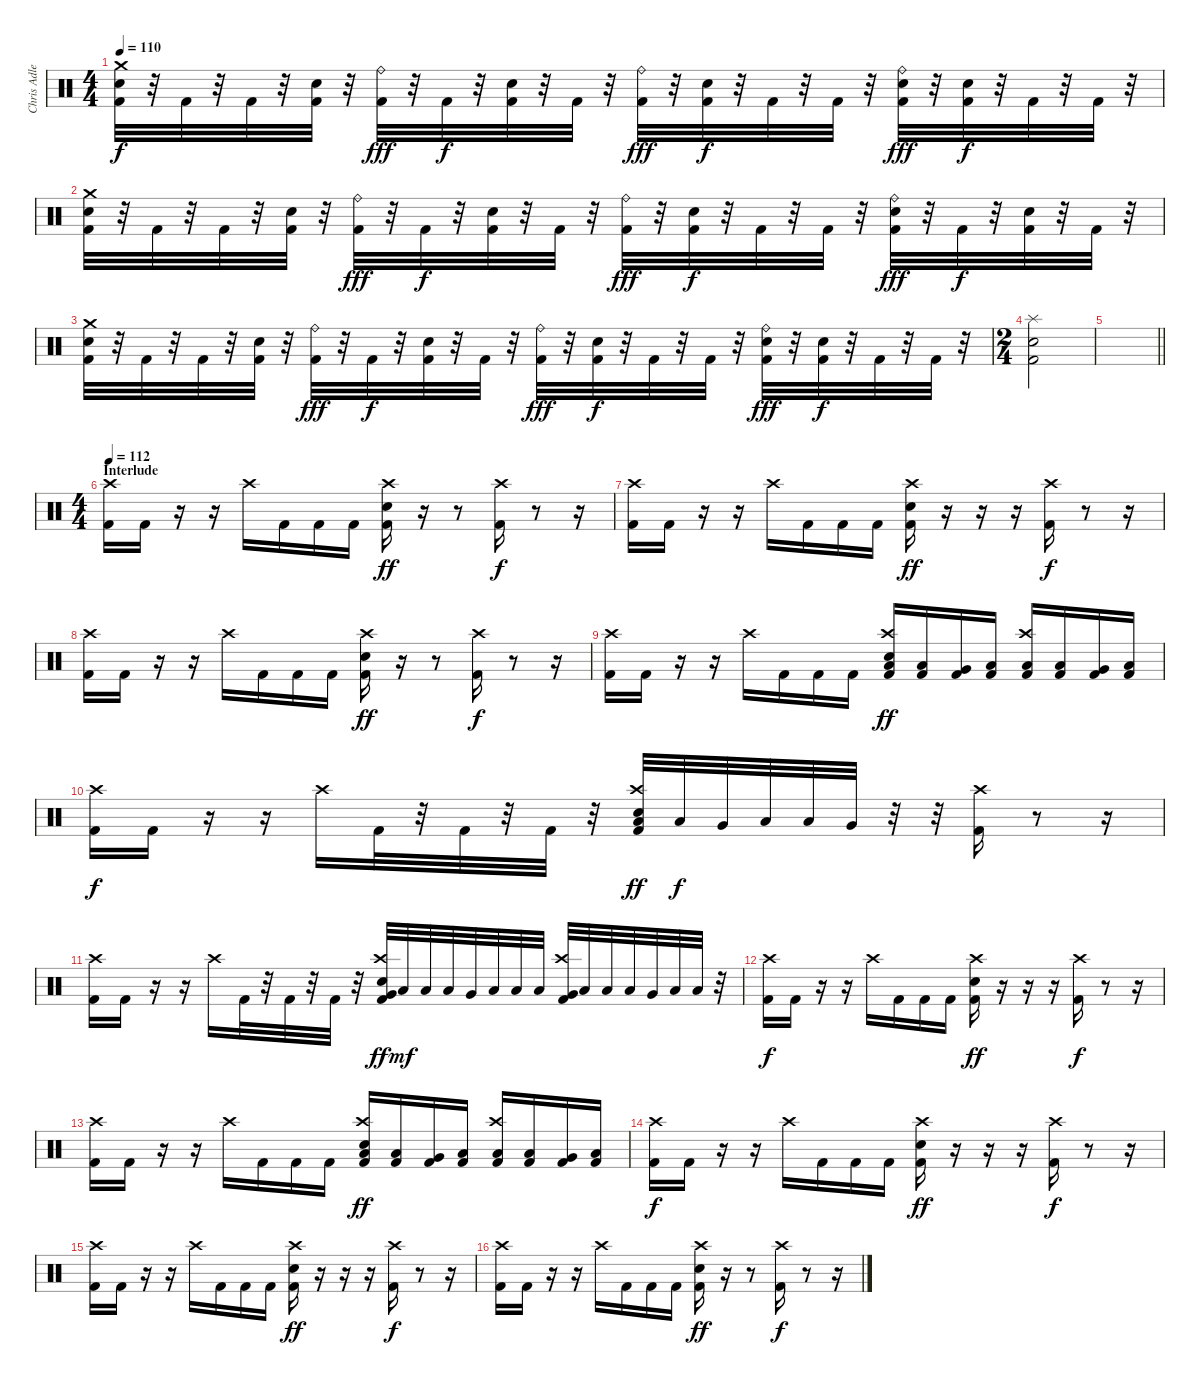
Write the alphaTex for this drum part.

\track ("Chris Adler" "Chris Adle") {instrument percussion}
\staff {score}
\articulation defaults
\ts (4 4)
\tempo 110
\clef neutral
\ks c
("Kick (hit) 2" "Electric Snare (hit)" "Crash medium (hit)").32{dy f} r.32 "Kick (hit) 2".32 r.32 "Kick (hit) 2".32 r.32 ("Kick (hit) 2" "Electric Snare (hit)").32 r.32 ("Kick (hit) 2" "Ride (bell)").32{dy fff} r.32 "Kick (hit) 2".32{dy f} r.32 ("Kick (hit) 2" "Electric Snare (hit)").32 r.32 "Kick (hit) 2".32 r.32 ("Kick (hit) 2" "Ride (bell)").32{dy fff} r.32 ("Kick (hit) 2" "Electric Snare (hit)").32{dy f} r.32 "Kick (hit) 2".32 r.32 "Kick (hit) 2".32 r.32 ("Kick (hit) 2" "Electric Snare (hit)" "Ride (bell)").32{dy fff} r.32 ("Kick (hit) 2" "Electric Snare (hit)").32{dy f} r.32 "Kick (hit) 2".32 r.32 "Kick (hit) 2".32 r.32 |
("Kick (hit) 2" "Electric Snare (hit)" "Crash medium (hit)").32 r.32 "Kick (hit) 2".32 r.32 "Kick (hit) 2".32 r.32 ("Kick (hit) 2" "Electric Snare (hit)").32 r.32 ("Kick (hit) 2" "Ride (bell)").32{dy fff} r.32 "Kick (hit) 2".32{dy f} r.32 ("Kick (hit) 2" "Electric Snare (hit)").32 r.32 "Kick (hit) 2".32 r.32 ("Kick (hit) 2" "Ride (bell)").32{dy fff} r.32 ("Kick (hit) 2" "Electric Snare (hit)").32{dy f} r.32 "Kick (hit) 2".32 r.32 "Kick (hit) 2".32 r.32 ("Kick (hit) 2" "Electric Snare (hit)" "Ride (bell)").32{dy fff} r.32 "Kick (hit) 2".32{dy f} r.32 ("Kick (hit) 2" "Electric Snare (hit)").32 r.32 "Kick (hit) 2".32 r.32 |
("Kick (hit) 2" "Electric Snare (hit)" "Crash medium (hit)").32 r.32 "Kick (hit) 2".32 r.32 "Kick (hit) 2".32 r.32 ("Kick (hit) 2" "Electric Snare (hit)").32 r.32 ("Kick (hit) 2" "Ride (bell)").32{dy fff} r.32 "Kick (hit) 2".32{dy f} r.32 ("Kick (hit) 2" "Electric Snare (hit)").32 r.32 "Kick (hit) 2".32 r.32 ("Kick (hit) 2" "Ride (bell)").32{dy fff} r.32 ("Kick (hit) 2" "Electric Snare (hit)").32{dy f} r.32 "Kick (hit) 2".32 r.32 "Kick (hit) 2".32 r.32 ("Kick (hit) 2" "Electric Snare (hit)" "Ride (bell)").32{dy fff} r.32 ("Kick (hit) 2" "Electric Snare (hit)").32{dy f} r.32 "Kick (hit) 2".32 r.32 "Kick (hit) 2".32 r.32 |
\ts (2 4)
("Kick (hit) 2" "Electric Snare (hit)" "Splash (hit)").2 |
\barLineRight lightlight
|
\ts (4 4)
\section ("" "Interlude")
\tempo 112
("Kick (hit) 2" "Crash high (hit)").16 "Kick (hit) 2".16 r.16 r.16 "Crash high (hit)".16 "Kick (hit) 2".16 "Kick (hit) 2".16 "Kick (hit) 2".16 ("Kick (hit) 2" "Electric Snare (hit)" "Crash high (hit)").16{dy ff} r.16 r.8 ("Kick (hit) 2" "Crash high (hit)").16{dy f} r.8 r.16 |
("Kick (hit) 2" "Crash high (hit)").16 "Kick (hit) 2".16 r.16 r.16 "Crash high (hit)".16 "Kick (hit) 2".16 "Kick (hit) 2".16 "Kick (hit) 2".16 ("Kick (hit) 2" "Electric Snare (hit)" "Crash high (hit)").16{dy ff} r.16 r.16 r.16 ("Kick (hit) 2" "Crash high (hit)").16{dy f} r.8 r.16 |
("Kick (hit) 2" "Crash high (hit)").16 "Kick (hit) 2".16 r.16 r.16 "Crash high (hit)".16 "Kick (hit) 2".16 "Kick (hit) 2".16 "Kick (hit) 2".16 ("Kick (hit) 2" "Electric Snare (hit)" "Crash high (hit)").16{dy ff} r.16 r.8 ("Kick (hit) 2" "Crash high (hit)").16{dy f} r.8 r.16 |
("Kick (hit) 2" "Crash high (hit)").16 "Kick (hit) 2".16 r.16 r.16 "Crash high (hit)".16 "Kick (hit) 2".16 "Kick (hit) 2".16 "Kick (hit) 2".16 ("Kick (hit) 2" "Low Floor Tom (hit)" "Electric Snare (hit)" "Crash high (hit)").16{dy ff} ("Kick (hit) 2" "Low Tom (hit)").16 ("Kick (hit) 2" "Very Low Tom (hit)").16 ("Kick (hit) 2" "Low Floor Tom (hit)").16 ("Kick (hit) 2" "Low Floor Tom (hit)" "Crash high (hit)").16 ("Kick (hit) 2" "Low Tom (hit)").16 ("Kick (hit) 2" "Very Low Tom (hit)").16 ("Kick (hit) 2" "Low Floor Tom (hit)").16 |
("Kick (hit) 2" "Crash high (hit)").16{dy f} "Kick (hit) 2".16 r.16 r.16 "Crash high (hit)".16 "Kick (hit) 2".32 r.32 "Kick (hit) 2".32 r.32 "Kick (hit) 2".32 r.32 ("Kick (hit) 2" "Low Floor Tom (hit)" "Electric Snare (hit)" "Crash high (hit)").32{dy ff} "Low Tom (hit)".32{dy f} "Very Low Tom (hit)".32 "Low Floor Tom (hit)".32 "Low Tom (hit)".32 "Very Low Tom (hit)".32 r.32 r.32 ("Kick (hit) 2" "Crash high (hit)").16 r.8 r.16 |
("Kick (hit) 2" "Crash high (hit)").16 "Kick (hit) 2".16 r.16 r.16 "Crash high (hit)".16 "Kick (hit) 2".32 r.32 "Kick (hit) 2".32 r.32 "Kick (hit) 2".32 r.32 ("Kick (hit) 2" "Very Low Tom (hit)" "Electric Snare (hit)" "Crash high (hit)").32{dy ff} "Low Floor Tom (hit)".32{dy mf} "Low Floor Tom (hit)".32 "Low Tom (hit)".32 "Very Low Tom (hit)".32 "Low Floor Tom (hit)".32 "Low Floor Tom (hit)".32 "Low Tom (hit)".32 ("Kick (hit) 2" "Very Low Tom (hit)" "Crash high (hit)").32 "Low Floor Tom (hit)".32 "Low Floor Tom (hit)".32 "Low Tom (hit)".32 "Very Low Tom (hit)".32 "Low Floor Tom (hit)".32 "Low Floor Tom (hit)".32 r.32 |
("Kick (hit) 2" "Crash high (hit)").16{dy f} "Kick (hit) 2".16 r.16 r.16 "Crash high (hit)".16 "Kick (hit) 2".16 "Kick (hit) 2".16 "Kick (hit) 2".16 ("Kick (hit) 2" "Electric Snare (hit)" "Crash high (hit)").16{dy ff} r.16 r.16 r.16 ("Kick (hit) 2" "Crash high (hit)").16{dy f} r.8 r.16 |
("Kick (hit) 2" "Crash high (hit)").16 "Kick (hit) 2".16 r.16 r.16 "Crash high (hit)".16 "Kick (hit) 2".16 "Kick (hit) 2".16 "Kick (hit) 2".16 ("Kick (hit) 2" "Low Floor Tom (hit)" "Electric Snare (hit)" "Crash high (hit)").16{dy ff} ("Kick (hit) 2" "Low Tom (hit)").16 ("Kick (hit) 2" "Very Low Tom (hit)").16 ("Kick (hit) 2" "Low Floor Tom (hit)").16 ("Kick (hit) 2" "Low Floor Tom (hit)" "Crash high (hit)").16 ("Kick (hit) 2" "Low Tom (hit)").16 ("Kick (hit) 2" "Very Low Tom (hit)").16 ("Kick (hit) 2" "Low Floor Tom (hit)").16 |
("Kick (hit) 2" "Crash high (hit)").16{dy f} "Kick (hit) 2".16 r.16 r.16 "Crash high (hit)".16 "Kick (hit) 2".16 "Kick (hit) 2".16 "Kick (hit) 2".16 ("Kick (hit) 2" "Electric Snare (hit)" "Crash high (hit)").16{dy ff} r.16 r.16 r.16 ("Kick (hit) 2" "Crash high (hit)").16{dy f} r.8 r.16 |
("Kick (hit) 2" "Crash high (hit)").16 "Kick (hit) 2".16 r.16 r.16 "Crash high (hit)".16 "Kick (hit) 2".16 "Kick (hit) 2".16 "Kick (hit) 2".16 ("Kick (hit) 2" "Electric Snare (hit)" "Crash high (hit)").16{dy ff} r.16 r.16 r.16 ("Kick (hit) 2" "Crash high (hit)").16{dy f} r.8 r.16 |
("Kick (hit) 2" "Crash high (hit)").16 "Kick (hit) 2".16 r.16 r.16 "Crash high (hit)".16 "Kick (hit) 2".16 "Kick (hit) 2".16 "Kick (hit) 2".16 ("Kick (hit) 2" "Electric Snare (hit)" "Crash high (hit)").16{dy ff} r.16 r.8 ("Kick (hit) 2" "Crash high (hit)").16{dy f} r.8 r.16
